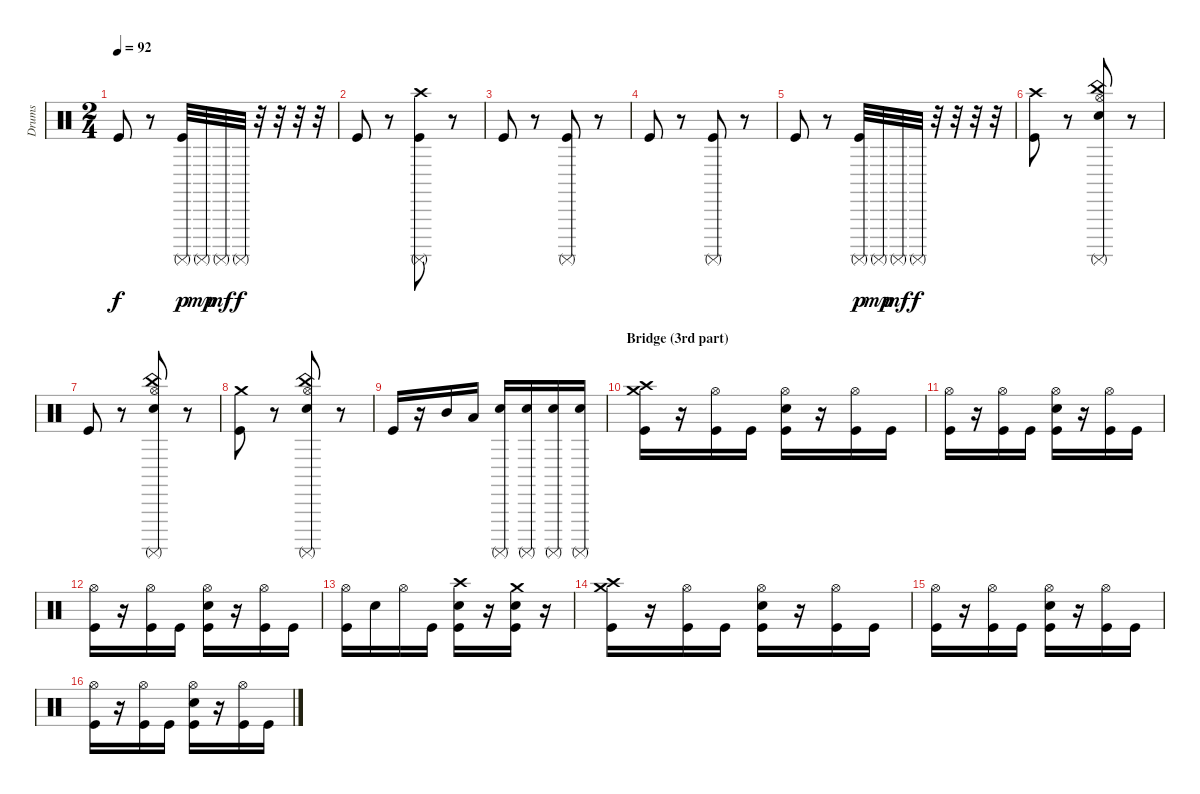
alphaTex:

\track ("Drums" "Drums") {instrument percussion}
\staff {score}
\articulation defaults
\ts (2 4)
\tempo 92
\clef neutral
\ks c "Kick (hit)".8{dy f}
r.8 ("Surdo (mute)" "Kick (hit)").32{dy p} "Surdo (mute)".32{dy mp} "Surdo (mute)".32{dy mf} "Surdo (mute)".32{dy f} r.32 r.32 r.32 r.32 |
"Kick (hit)".8 r.8 ("Crash high (hit)" "Surdo (mute)" "Kick (hit)").8 r.8 |
"Kick (hit)".8 r.8 ("Surdo (mute)" "Kick (hit)").8 r.8 |
"Kick (hit)".8 r.8 ("Surdo (mute)" "Kick (hit)").8 r.8 |
"Kick (hit)".8 r.8 ("Surdo (mute)" "Kick (hit)").32{dy p} "Surdo (mute)".32{dy mp} "Surdo (mute)".32{dy mf} "Surdo (mute)".32{dy f} r.32 r.32 r.32 r.32 |
("Crash high (hit)" "Kick (hit)").8 r.8 ("Hi-Hat (open)" "Surdo (mute)" "Electric Snare (hit)" "China (hit)").8 r.8 |
"Kick (hit)".8 r.8 ("Hi-Hat (open)" "Surdo (mute)" "Electric Snare (hit)" "China (hit)").8 r.8 |
("Kick (hit)" "Crash medium (hit)").8 r.8 ("Electric Snare (hit)" "Surdo (mute)" "Hi-Hat (open)" "China (hit)").8 r.8 |
"Kick (hit)".16 r.16 "Mid Tom (hit)".16 "Low Tom (hit)".16 ("Electric Snare (hit)" "Surdo (mute)").16 ("Electric Snare (hit)" "Surdo (mute)").16 ("Electric Snare (hit)" "Surdo (mute)").16 ("Electric Snare (hit)" "Surdo (mute)").16 |
\section ("" "Bridge (3rd part)")
("Crash high (hit)" "Crash medium (hit)" "Kick (hit)").16 r.16 ("Hi-Hat (open)" "Kick (hit)").16 "Kick (hit)".16 ("Electric Snare (hit)" "Hi-Hat (open)" "Kick (hit)").16 r.16 ("Kick (hit)" "Hi-Hat (open)").16 "Kick (hit)".16 |
("Hi-Hat (open)" "Kick (hit)").16 r.16 ("Hi-Hat (open)" "Kick (hit)").16 "Kick (hit)".16 ("Hi-Hat (open)" "Kick (hit)" "Electric Snare (hit)").16 r.16 ("Hi-Hat (open)" "Kick (hit)").16 "Kick (hit)".16 |
("Hi-Hat (open)" "Kick (hit)").16 r.16 ("Hi-Hat (open)" "Kick (hit)").16 "Kick (hit)".16 ("Hi-Hat (open)" "Kick (hit)" "Electric Snare (hit)").16 r.16 ("Hi-Hat (open)" "Kick (hit)").16 "Kick (hit)".16 |
("Hi-Hat (open)" "Kick (hit)").16 "Electric Snare (hit)".16 "Hi-Hat (open)".16 "Kick (hit)".16 ("Crash high (hit)" "Kick (hit)" "Electric Snare (hit)").16 r.16 ("Crash medium (hit)" "Electric Snare (hit)" "Kick (hit)").16 r.16 |
("Crash high (hit)" "Crash medium (hit)" "Kick (hit)").16 r.16 ("Hi-Hat (open)" "Kick (hit)").16 "Kick (hit)".16 ("Electric Snare (hit)" "Hi-Hat (open)" "Kick (hit)").16 r.16 ("Kick (hit)" "Hi-Hat (open)").16 "Kick (hit)".16 |
("Hi-Hat (open)" "Kick (hit)").16 r.16 ("Hi-Hat (open)" "Kick (hit)").16 "Kick (hit)".16 ("Hi-Hat (open)" "Kick (hit)" "Electric Snare (hit)").16 r.16 ("Hi-Hat (open)" "Kick (hit)").16 "Kick (hit)".16 |
("Hi-Hat (open)" "Kick (hit)").16 r.16 ("Hi-Hat (open)" "Kick (hit)").16 "Kick (hit)".16 ("Hi-Hat (open)" "Kick (hit)" "Electric Snare (hit)").16 r.16 ("Hi-Hat (open)" "Kick (hit)").16 "Kick (hit)".16
